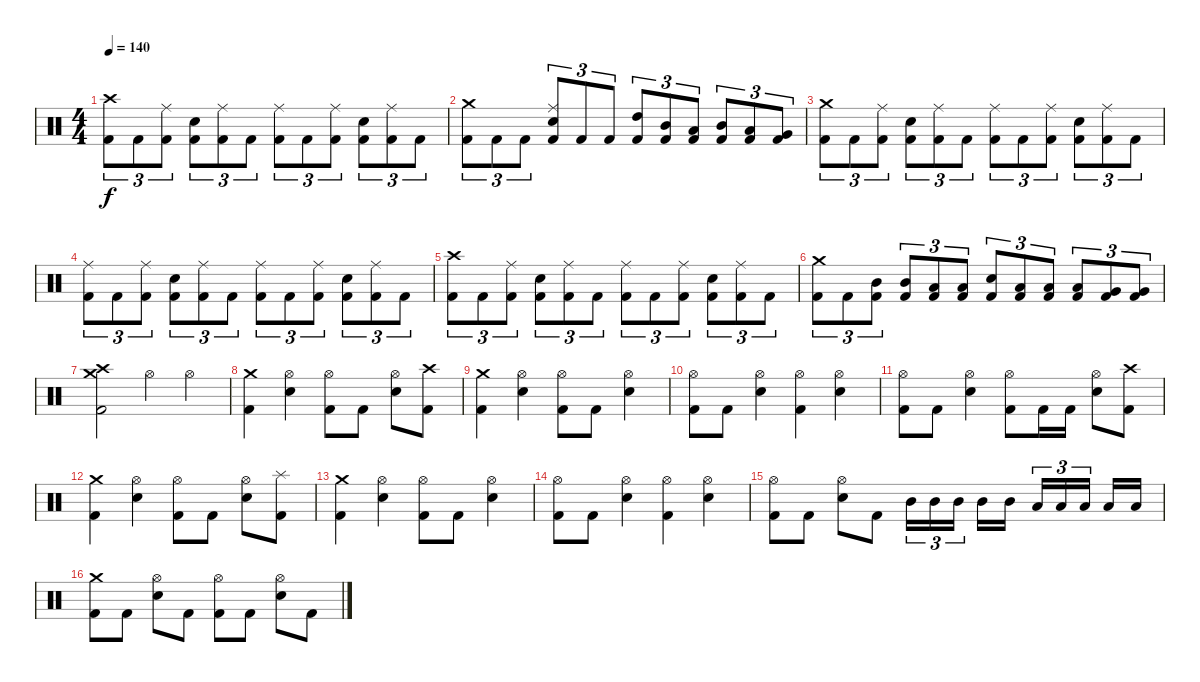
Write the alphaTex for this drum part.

\track "" {instrument percussion}
\staff {score}
\articulation defaults
\ts (4 4)
\tempo 140
\clef neutral
\ks c
("Crash high (hit)" "Kick (hit) 2").8{tu (3 2) dy f} "Kick (hit) 2".8{tu (3 2)} ("Ride (middle)" "Kick (hit) 2").8{tu (3 2)} ("Electric Snare (hit)" "Kick (hit) 2").8{tu (3 2)} ("Ride (middle)" "Kick (hit) 2").8{tu (3 2)} "Kick (hit) 2".8{tu (3 2)} ("Ride (middle)" "Kick (hit) 2").8{tu (3 2)} "Kick (hit) 2".8{tu (3 2)} ("Ride (middle)" "Kick (hit) 2").8{tu (3 2)} ("Electric Snare (hit)" "Kick (hit) 2").8{tu (3 2)} ("Ride (middle)" "Kick (hit) 2").8{tu (3 2)} "Kick (hit) 2".8{tu (3 2)} |
("Crash medium (hit)" "Kick (hit) 2").8{tu (3 2)} "Kick (hit) 2".8{tu (3 2)} "Kick (hit) 2".8{tu (3 2)} ("Ride (middle)" "Electric Snare (hit)" "Kick (hit) 2").8{tu (3 2)} "Kick (hit) 2".8{tu (3 2)} "Kick (hit) 2".8{tu (3 2)} ("High Tom (hit)" "Kick (hit) 2").8{tu (3 2)} ("Mid Tom (hit)" "Kick (hit) 2").8{tu (3 2)} ("Low Tom (hit)" "Kick (hit) 2").8{tu (3 2)} ("Mid Tom (hit)" "Kick (hit) 2").8{tu (3 2)} ("Low Tom (hit)" "Kick (hit) 2").8{tu (3 2)} ("Very Low Tom (hit)" "Kick (hit) 2").8{tu (3 2)} |
("Crash medium (hit)" "Kick (hit) 2").8{tu (3 2)} "Kick (hit) 2".8{tu (3 2)} ("Ride (middle)" "Kick (hit) 2").8{tu (3 2)} ("Electric Snare (hit)" "Kick (hit) 2").8{tu (3 2)} ("Ride (middle)" "Kick (hit) 2").8{tu (3 2)} "Kick (hit) 2".8{tu (3 2)} ("Ride (middle)" "Kick (hit) 2").8{tu (3 2)} "Kick (hit) 2".8{tu (3 2)} ("Ride (middle)" "Kick (hit) 2").8{tu (3 2)} ("Electric Snare (hit)" "Kick (hit) 2").8{tu (3 2)} ("Ride (middle)" "Kick (hit) 2").8{tu (3 2)} "Kick (hit) 2".8{tu (3 2)} |
("Ride (middle)" "Kick (hit) 2").8{tu (3 2)} "Kick (hit) 2".8{tu (3 2)} ("Ride (middle)" "Kick (hit) 2").8{tu (3 2)} ("Electric Snare (hit)" "Kick (hit) 2").8{tu (3 2)} ("Ride (middle)" "Kick (hit) 2").8{tu (3 2)} "Kick (hit) 2".8{tu (3 2)} ("Ride (middle)" "Kick (hit) 2").8{tu (3 2)} "Kick (hit) 2".8{tu (3 2)} ("Ride (middle)" "Kick (hit) 2").8{tu (3 2)} ("Electric Snare (hit)" "Kick (hit) 2").8{tu (3 2)} ("Ride (middle)" "Kick (hit) 2").8{tu (3 2)} "Kick (hit) 2".8{tu (3 2)} |
("Crash high (hit)" "Kick (hit) 2").8{tu (3 2)} "Kick (hit) 2".8{tu (3 2)} ("Ride (middle)" "Kick (hit) 2").8{tu (3 2)} ("Electric Snare (hit)" "Kick (hit) 2").8{tu (3 2)} ("Ride (middle)" "Kick (hit) 2").8{tu (3 2)} "Kick (hit) 2".8{tu (3 2)} ("Ride (middle)" "Kick (hit) 2").8{tu (3 2)} "Kick (hit) 2".8{tu (3 2)} ("Ride (middle)" "Kick (hit) 2").8{tu (3 2)} ("Electric Snare (hit)" "Kick (hit) 2").8{tu (3 2)} ("Ride (middle)" "Kick (hit) 2").8{tu (3 2)} "Kick (hit) 2".8{tu (3 2)} |
("Crash medium (hit)" "Kick (hit) 2").8{tu (3 2)} "Kick (hit) 2".8{tu (3 2)} ("Mid Tom (hit)" "Kick (hit) 2").8{tu (3 2)} ("Mid Tom (hit)" "Kick (hit) 2").8{tu (3 2)} ("Low Tom (hit)" "Kick (hit) 2").8{tu (3 2)} ("Low Tom (hit)" "Kick (hit) 2").8{tu (3 2)} ("Electric Snare (hit)" "Kick (hit) 2").8{tu (3 2)} ("Low Tom (hit)" "Kick (hit) 2").8{tu (3 2)} ("Low Tom (hit)" "Kick (hit) 2").8{tu (3 2)} ("Low Tom (hit)" "Kick (hit) 2").8{tu (3 2)} ("Very Low Tom (hit)" "Kick (hit) 2").8{tu (3 2)} ("Very Low Tom (hit)" "Kick (hit) 2").8{tu (3 2)} |
("Crash medium (hit)" "Crash high (hit)" "Kick (hit) 2").2 "Hi-Hat (open)".4 "Hi-Hat (open)".4 |
("Crash medium (hit)" "Kick (hit) 2").4 ("Hi-Hat (open)" "Electric Snare (hit)").4 ("Hi-Hat (open)" "Kick (hit) 2").8 "Kick (hit) 2".8 ("Hi-Hat (open)" "Electric Snare (hit)").8 ("Crash high (hit)" "Kick (hit) 2").8 |
("Crash medium (hit)" "Kick (hit) 2").4 ("Hi-Hat (open)" "Electric Snare (hit)").4 ("Hi-Hat (open)" "Kick (hit) 2").8 "Kick (hit) 2".8 ("Hi-Hat (open)" "Electric Snare (hit)").4 |
("Hi-Hat (open)" "Kick (hit) 2").8 "Kick (hit) 2".8 ("Hi-Hat (open)" "Electric Snare (hit)").4 ("Hi-Hat (open)" "Kick (hit) 2").4 ("Hi-Hat (open)" "Electric Snare (hit)").4 |
("Hi-Hat (open)" "Kick (hit) 2").8 "Kick (hit) 2".8 ("Hi-Hat (open)" "Electric Snare (hit)").4 ("Hi-Hat (open)" "Kick (hit) 2").8 "Kick (hit) 2".16 "Kick (hit) 2".16 ("Hi-Hat (open)" "Electric Snare (hit)").8 ("Crash high (hit)" "Kick (hit) 2").8 |
("Crash medium (hit)" "Kick (hit) 2").4 ("Hi-Hat (open)" "Electric Snare (hit)").4 ("Hi-Hat (open)" "Kick (hit) 2").8 "Kick (hit) 2".8 ("Hi-Hat (open)" "Electric Snare (hit)").8 ("Splash (hit)" "Kick (hit) 2").8 |
("Crash medium (hit)" "Kick (hit) 2").4 ("Hi-Hat (open)" "Electric Snare (hit)").4 ("Hi-Hat (open)" "Kick (hit) 2").8 "Kick (hit) 2".8 ("Hi-Hat (open)" "Electric Snare (hit)").4 |
("Hi-Hat (open)" "Kick (hit) 2").8 "Kick (hit) 2".8 ("Hi-Hat (open)" "Electric Snare (hit)").4 ("Hi-Hat (open)" "Kick (hit) 2").4 ("Hi-Hat (open)" "Electric Snare (hit)").4 |
("Hi-Hat (open)" "Kick (hit) 2").8 "Kick (hit) 2".8 ("Hi-Hat (open)" "Electric Snare (hit)").8 "Kick (hit) 2".8 "Mid Tom (hit)".16{tu (3 2)} "Mid Tom (hit)".16{tu (3 2)} "Mid Tom (hit)".16{tu (3 2) beam splitsecondary} "Mid Tom (hit)".16 "Mid Tom (hit)".16 "Low Tom (hit)".16{tu (3 2)} "Low Tom (hit)".16{tu (3 2)} "Low Tom (hit)".16{tu (3 2) beam splitsecondary} "Low Tom (hit)".16 "Low Tom (hit)".16 |
("Crash medium (hit)" "Kick (hit) 2").8 "Kick (hit) 2".8 ("Hi-Hat (open)" "Electric Snare (hit)").8 "Kick (hit) 2".8 ("Hi-Hat (open)" "Kick (hit) 2").8 "Kick (hit) 2".8 ("Hi-Hat (open)" "Electric Snare (hit)").8 "Kick (hit) 2".8
